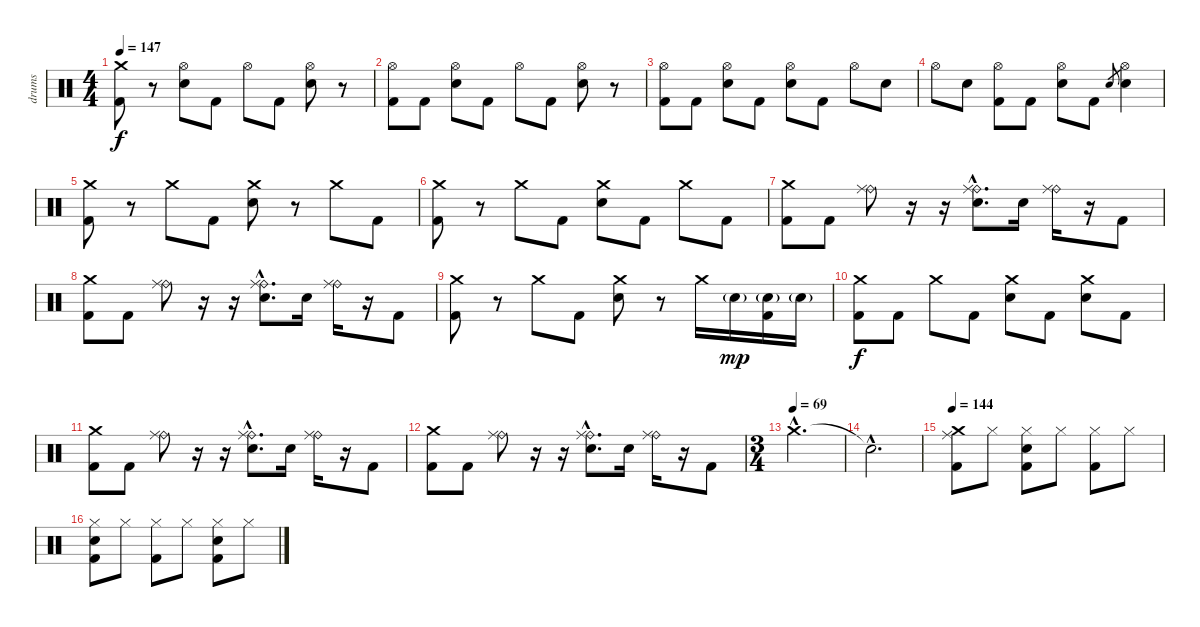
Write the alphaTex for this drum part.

\track ("drums" "drums") {instrument percussion}
\staff {score}
\articulation defaults
\ts (4 4)
\tempo 147
\clef neutral
\ks c
("Crash medium (hit)" "Kick (hit) 2").8{dy f} r.8 ("Hi-Hat (open)" "Snare (hit) 2").8 "Kick (hit) 2".8 "Hi-Hat (open)".8 "Kick (hit) 2".8 ("Hi-Hat (open)" "Snare (hit) 2").8 r.8 |
("Hi-Hat (open)" "Kick (hit) 2").8 "Kick (hit) 2".8 ("Hi-Hat (open)" "Snare (hit) 2").8 "Kick (hit) 2".8 "Hi-Hat (open)".8 "Kick (hit) 2".8 ("Hi-Hat (open)" "Snare (hit) 2").8 r.8 |
("Hi-Hat (open)" "Kick (hit) 2").8 "Kick (hit) 2".8 ("Hi-Hat (open)" "Snare (hit) 2").8 "Kick (hit) 2".8 ("Hi-Hat (open)" "Snare (hit) 2").8 "Kick (hit) 2".8 "Hi-Hat (open)".8 "Snare (hit) 2".8 |
"Hi-Hat (open)".8 "Snare (hit) 2".8 ("Hi-Hat (open)" "Kick (hit) 2").8 "Kick (hit) 2".8 ("Hi-Hat (open)" "Snare (hit) 2").8 "Kick (hit) 2".8 "Snare (hit) 2".8{gr} ("Hi-Hat (open)" "Snare (hit) 2").4 |
("Crash medium (hit)" "Kick (hit) 2").8 r.8 "Crash medium (hit)".8 "Kick (hit) 2".8 ("Crash medium (hit)" "Snare (hit) 2").8 r.8 "Crash medium (hit)".8 "Kick (hit) 2".8 |
("Crash medium (hit)" "Kick (hit) 2").8 r.8 "Crash medium (hit)".8 "Kick (hit) 2".8 ("Crash medium (hit)" "Snare (hit) 2").8 "Kick (hit) 2".8 "Crash medium (hit)".8 "Kick (hit) 2".8 |
("Crash medium (hit)" "Kick (hit) 2").8 "Kick (hit) 2".8 ("Ride (bell)" "Ride (middle)").8 r.16 r.16 ("Ride (bell)"{hac} "Ride (middle)"{hac} "Snare (hit) 2"{hac}).8{d} "Snare (hit) 2".16 ("Ride (bell)" "Ride (middle)").16 r.16 "Kick (hit) 2".8 |
("Crash medium (hit)" "Kick (hit) 2").8 "Kick (hit) 2".8 ("Ride (bell)" "Ride (middle)").8 r.16 r.16 ("Ride (bell)"{hac} "Ride (middle)"{hac} "Snare (hit) 2"{hac}).8{d} "Snare (hit) 2".16 ("Ride (bell)" "Ride (middle)").16 r.16 "Kick (hit) 2".8 |
("Crash medium (hit)" "Kick (hit) 2").8 r.8 "Crash medium (hit)".8 "Kick (hit) 2".8 ("Crash medium (hit)" "Snare (hit) 2").8 r.8 "Crash medium (hit)".16 "Snare (hit) 2"{g}.16{dy mp} ("Snare (hit) 2"{g} "Kick (hit) 2").16 "Snare (hit) 2"{g}.16 |
("Crash medium (hit)" "Kick (hit) 2").8{dy f} "Kick (hit) 2".8 "Crash medium (hit)".8 "Kick (hit) 2".8 ("Crash medium (hit)" "Snare (hit) 2").8 "Kick (hit) 2".8 ("Crash medium (hit)" "Snare (hit) 2").8 "Kick (hit) 2".8 |
("Crash medium (hit)" "Kick (hit) 2").8 "Kick (hit) 2".8 ("Ride (bell)" "Ride (middle)").8 r.16 r.16 ("Ride (bell)"{hac} "Ride (middle)"{hac} "Snare (hit) 2"{hac}).8{d} "Snare (hit) 2".16 ("Ride (bell)" "Ride (middle)").16 r.16 "Kick (hit) 2".8 |
("Crash medium (hit)" "Kick (hit) 2").8 "Kick (hit) 2".8 ("Ride (bell)" "Ride (middle)").8 r.16 r.16 ("Ride (bell)"{hac} "Ride (middle)"{hac} "Snare (hit) 2"{hac}).8{d} "Snare (hit) 2".16 ("Ride (bell)" "Ride (middle)").16 r.16 "Kick (hit) 2".8 |
\ts (3 4)
\tempo (69)
"Crash medium (hit)"{hac}.2{d} |
"Snare (hit)"{hac t}.2{d} |
\tempo 144
("Crash medium (hit)" "Ride (middle)" "Kick (hit) 2").8 "Hi-Hat (closed)".8 ("Hi-Hat (closed)" "Snare (hit) 2" "Kick (hit) 2").8 "Hi-Hat (closed)".8 ("Hi-Hat (closed)" "Kick (hit) 2").8 "Hi-Hat (closed)".8 |
("Hi-Hat (closed)" "Snare (hit) 2" "Kick (hit) 2").8 "Hi-Hat (closed)".8 ("Hi-Hat (closed)" "Kick (hit) 2").8 "Hi-Hat (closed)".8 ("Hi-Hat (closed)" "Snare (hit) 2" "Kick (hit) 2").8 "Hi-Hat (closed)".8
